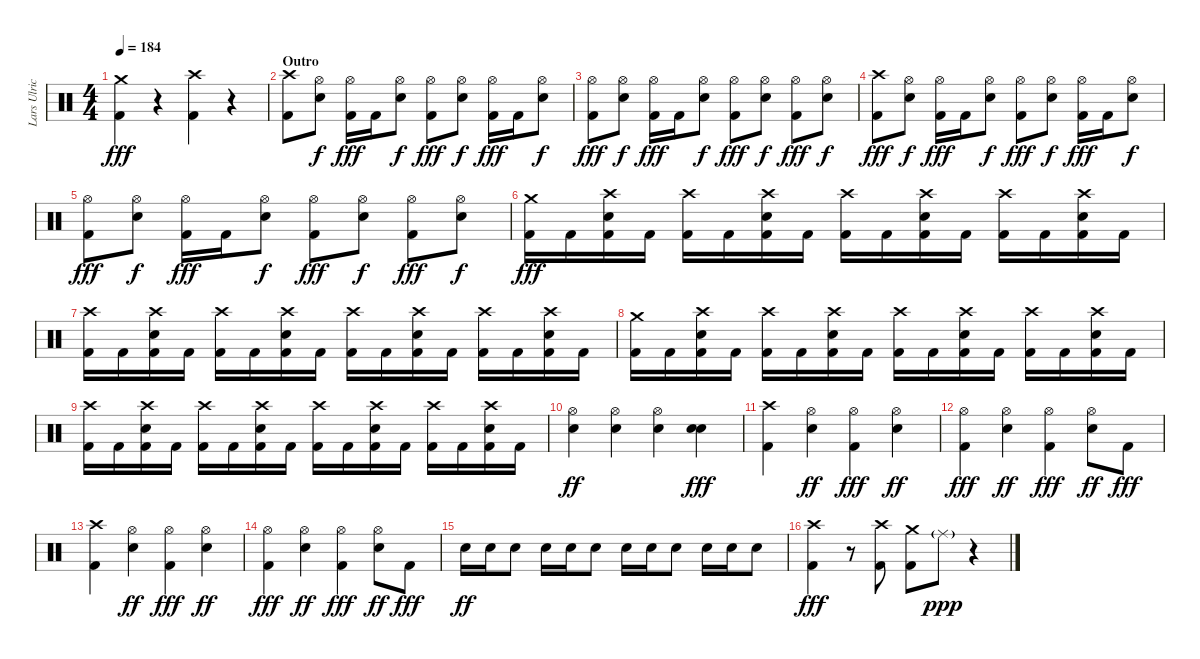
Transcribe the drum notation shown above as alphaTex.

\track ("Lars Ulrich" "Lars Ulric") {instrument percussion}
\staff {score}
\articulation defaults
\ts (4 4)
\tempo 184
\clef neutral
\ks c
("Crash medium (hit)" "Kick (hit) 2").4{dy fff} r.4 ("Crash high (hit)" "Kick (hit) 2").4 r.4 |
\section ("" "Outro")
("Crash high (hit)" "Kick (hit) 2").8 ("Hi-Hat (open)" "Electric Snare (hit)").8{dy f} ("Hi-Hat (open)" "Kick (hit) 2").16{dy fff} "Kick (hit) 2".16 ("Hi-Hat (open)" "Electric Snare (hit)").8{dy f} ("Hi-Hat (open)" "Kick (hit) 2").8{dy fff} ("Hi-Hat (open)" "Electric Snare (hit)").8{dy f} ("Hi-Hat (open)" "Kick (hit) 2").16{dy fff} "Kick (hit) 2".16 ("Hi-Hat (open)" "Electric Snare (hit)").8{dy f} |
("Hi-Hat (open)" "Kick (hit) 2").8{dy fff} ("Hi-Hat (open)" "Electric Snare (hit)").8{dy f} ("Hi-Hat (open)" "Kick (hit) 2").16{dy fff} "Kick (hit) 2".16 ("Hi-Hat (open)" "Electric Snare (hit)").8{dy f} ("Hi-Hat (open)" "Kick (hit) 2").8{dy fff} ("Hi-Hat (open)" "Electric Snare (hit)").8{dy f} ("Hi-Hat (open)" "Kick (hit) 2").8{dy fff} ("Hi-Hat (open)" "Electric Snare (hit)").8{dy f} |
("Crash high (hit)" "Kick (hit) 2").8{dy fff} ("Hi-Hat (open)" "Electric Snare (hit)").8{dy f} ("Hi-Hat (open)" "Kick (hit) 2").16{dy fff} "Kick (hit) 2".16 ("Hi-Hat (open)" "Electric Snare (hit)").8{dy f} ("Hi-Hat (open)" "Kick (hit) 2").8{dy fff} ("Hi-Hat (open)" "Electric Snare (hit)").8{dy f} ("Hi-Hat (open)" "Kick (hit) 2").16{dy fff} "Kick (hit) 2".16 ("Hi-Hat (open)" "Electric Snare (hit)").8{dy f} |
("Hi-Hat (open)" "Kick (hit) 2").8{dy fff} ("Hi-Hat (open)" "Electric Snare (hit)").8{dy f} ("Hi-Hat (open)" "Kick (hit) 2").16{dy fff} "Kick (hit) 2".16 ("Hi-Hat (open)" "Electric Snare (hit)").8{dy f} ("Hi-Hat (open)" "Kick (hit) 2").8{dy fff} ("Hi-Hat (open)" "Electric Snare (hit)").8{dy f} ("Hi-Hat (open)" "Kick (hit) 2").8{dy fff} ("Hi-Hat (open)" "Electric Snare (hit)").8{dy f} |
("Crash medium (hit)" "Kick (hit) 2").16{dy fff} "Kick (hit) 2".16 ("Crash high (hit)" "Electric Snare (hit)" "Kick (hit) 2").16 "Kick (hit) 2".16 ("Crash high (hit)" "Kick (hit) 2").16 "Kick (hit) 2".16 ("Crash high (hit)" "Electric Snare (hit)" "Kick (hit) 2").16 "Kick (hit) 2".16 ("Crash high (hit)" "Kick (hit) 2").16 "Kick (hit) 2".16 ("Crash high (hit)" "Electric Snare (hit)" "Kick (hit) 2").16 "Kick (hit) 2".16 ("Crash high (hit)" "Kick (hit) 2").16 "Kick (hit) 2".16 ("Crash high (hit)" "Electric Snare (hit)" "Kick (hit) 2").16 "Kick (hit) 2".16 |
("Crash high (hit)" "Kick (hit) 2").16 "Kick (hit) 2".16 ("Crash high (hit)" "Electric Snare (hit)" "Kick (hit) 2").16 "Kick (hit) 2".16 ("Crash high (hit)" "Kick (hit) 2").16 "Kick (hit) 2".16 ("Crash high (hit)" "Electric Snare (hit)" "Kick (hit) 2").16 "Kick (hit) 2".16 ("Crash high (hit)" "Kick (hit) 2").16 "Kick (hit) 2".16 ("Crash high (hit)" "Electric Snare (hit)" "Kick (hit) 2").16 "Kick (hit) 2".16 ("Crash high (hit)" "Kick (hit) 2").16 "Kick (hit) 2".16 ("Crash high (hit)" "Electric Snare (hit)" "Kick (hit) 2").16 "Kick (hit) 2".16 |
("Crash medium (hit)" "Kick (hit) 2").16 "Kick (hit) 2".16 ("Crash high (hit)" "Electric Snare (hit)" "Kick (hit) 2").16 "Kick (hit) 2".16 ("Crash high (hit)" "Kick (hit) 2").16 "Kick (hit) 2".16 ("Crash high (hit)" "Electric Snare (hit)" "Kick (hit) 2").16 "Kick (hit) 2".16 ("Crash high (hit)" "Kick (hit) 2").16 "Kick (hit) 2".16 ("Crash high (hit)" "Electric Snare (hit)" "Kick (hit) 2").16 "Kick (hit) 2".16 ("Crash high (hit)" "Kick (hit) 2").16 "Kick (hit) 2".16 ("Crash high (hit)" "Electric Snare (hit)" "Kick (hit) 2").16 "Kick (hit) 2".16 |
("Crash high (hit)" "Kick (hit) 2").16 "Kick (hit) 2".16 ("Crash high (hit)" "Electric Snare (hit)" "Kick (hit) 2").16 "Kick (hit) 2".16 ("Crash high (hit)" "Kick (hit) 2").16 "Kick (hit) 2".16 ("Crash high (hit)" "Electric Snare (hit)" "Kick (hit) 2").16 "Kick (hit) 2".16 ("Crash high (hit)" "Kick (hit) 2").16 "Kick (hit) 2".16 ("Crash high (hit)" "Electric Snare (hit)" "Kick (hit) 2").16 "Kick (hit) 2".16 ("Crash high (hit)" "Kick (hit) 2").16 "Kick (hit) 2".16 ("Crash high (hit)" "Electric Snare (hit)" "Kick (hit) 2").16 "Kick (hit) 2".16 |
("Hi-Hat (open)" "Electric Snare (hit)").4{dy ff} ("Hi-Hat (open)" "Electric Snare (hit)").4 ("Hi-Hat (open)" "Electric Snare (hit)").4 ("Electric Snare (hit)" "Electric Snare (hit)").4{bu 120 dy fff} |
("Crash high (hit)" "Kick (hit) 2").4 ("Hi-Hat (open)" "Electric Snare (hit)").4{dy ff} ("Hi-Hat (open)" "Kick (hit) 2").4{dy fff} ("Hi-Hat (open)" "Electric Snare (hit)").4{dy ff} |
("Hi-Hat (open)" "Kick (hit) 2").4{dy fff} ("Hi-Hat (open)" "Electric Snare (hit)").4{dy ff} ("Hi-Hat (open)" "Kick (hit) 2").4{dy fff} ("Hi-Hat (open)" "Electric Snare (hit)").8{dy ff} "Kick (hit) 2".8{dy fff} |
("Crash high (hit)" "Kick (hit) 2").4 ("Hi-Hat (open)" "Electric Snare (hit)").4{dy ff} ("Hi-Hat (open)" "Kick (hit) 2").4{dy fff} ("Hi-Hat (open)" "Electric Snare (hit)").4{dy ff} |
("Hi-Hat (open)" "Kick (hit) 2").4{dy fff} ("Hi-Hat (open)" "Electric Snare (hit)").4{dy ff} ("Hi-Hat (open)" "Kick (hit) 2").4{dy fff} ("Hi-Hat (open)" "Electric Snare (hit)").8{dy ff} "Kick (hit) 2".8{dy fff} |
"Electric Snare (hit)".16{dy ff} "Electric Snare (hit)".16 "Electric Snare (hit)".8 "Electric Snare (hit)".16 "Electric Snare (hit)".16 "Electric Snare (hit)".8 "Electric Snare (hit)".16 "Electric Snare (hit)".16 "Electric Snare (hit)".8 "Electric Snare (hit)".16 "Electric Snare (hit)".16 "Electric Snare (hit)".8 |
("Crash high (hit)" "Kick (hit) 2").4{dy fff} r.8 ("Crash high (hit)" "Kick (hit) 2").8 ("Crash medium (hit)" "Kick (hit) 2").8 "Ride (middle)"{g}.8{dy ppp} r.4
